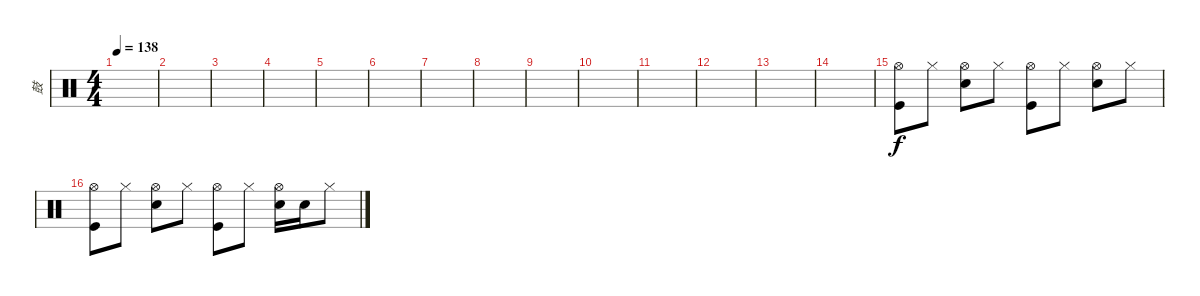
\track ("鼓" "鼓") {instrument percussion}
\staff {score}
\articulation defaults
\ts (4 4)
\tempo 138
\clef neutral
\ks c
|
|
|
|
|
|
|
|
|
|
|
|
|
|
("Hi-Hat (open)" "Kick (hit)").8 "Hi-Hat (closed)".8 ("Hi-Hat (open)" "Snare (hit) 2").8 "Hi-Hat (closed)".8 ("Hi-Hat (open)" "Kick (hit)").8 "Hi-Hat (closed)".8 ("Hi-Hat (open)" "Snare (hit) 2").8 "Hi-Hat (closed)".8 |
("Hi-Hat (open)" "Kick (hit)").8 "Hi-Hat (closed)".8 ("Hi-Hat (open)" "Snare (hit) 2").8 "Hi-Hat (closed)".8 ("Hi-Hat (open)" "Kick (hit)").8 "Hi-Hat (closed)".8 ("Hi-Hat (open)" "Snare (hit) 2").16 "Snare (hit) 2".16 "Hi-Hat (closed)".8
